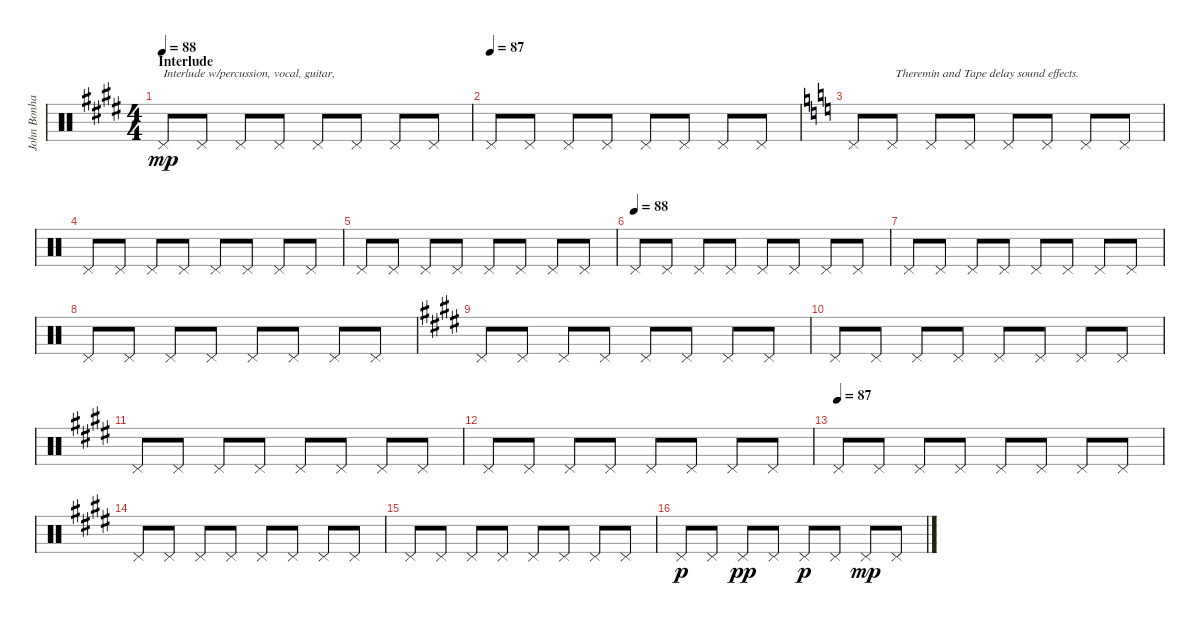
\track ("John Bonham Drums" "John Bonha") {instrument percussion}
\staff {score}
\articulation defaults
\ts (4 4)
\section ("" "Interlude")
\tempo 88
\clef neutral
\ks e "Pedal Hi-Hat (hit)".8{txt "Interlude w/percussion, vocal, guitar," dy mp} "Pedal Hi-Hat (hit)".8 "Pedal Hi-Hat (hit)".8 "Pedal Hi-Hat (hit)".8 "Pedal Hi-Hat (hit)".8 "Pedal Hi-Hat (hit)".8 "Pedal Hi-Hat (hit)".8 "Pedal Hi-Hat (hit)".8
|
\tempo (87)
"Pedal Hi-Hat (hit)".8 "Pedal Hi-Hat (hit)".8 "Pedal Hi-Hat (hit)".8 "Pedal Hi-Hat (hit)".8 "Pedal Hi-Hat (hit)".8 "Pedal Hi-Hat (hit)".8 "Pedal Hi-Hat (hit)".8 "Pedal Hi-Hat (hit)".8 |
\ks c "Pedal Hi-Hat (hit)".8 "Pedal Hi-Hat (hit)".8{txt " Theremin and Tape delay sound effects."} "Pedal Hi-Hat (hit)".8 "Pedal Hi-Hat (hit)".8 "Pedal Hi-Hat (hit)".8 "Pedal Hi-Hat (hit)".8 "Pedal Hi-Hat (hit)".8 "Pedal Hi-Hat (hit)".8
|
"Pedal Hi-Hat (hit)".8 "Pedal Hi-Hat (hit)".8 "Pedal Hi-Hat (hit)".8 "Pedal Hi-Hat (hit)".8 "Pedal Hi-Hat (hit)".8 "Pedal Hi-Hat (hit)".8 "Pedal Hi-Hat (hit)".8 "Pedal Hi-Hat (hit)".8 |
"Pedal Hi-Hat (hit)".8 "Pedal Hi-Hat (hit)".8 "Pedal Hi-Hat (hit)".8 "Pedal Hi-Hat (hit)".8 "Pedal Hi-Hat (hit)".8 "Pedal Hi-Hat (hit)".8 "Pedal Hi-Hat (hit)".8 "Pedal Hi-Hat (hit)".8 |
\tempo (88)
"Pedal Hi-Hat (hit)".8 "Pedal Hi-Hat (hit)".8 "Pedal Hi-Hat (hit)".8 "Pedal Hi-Hat (hit)".8 "Pedal Hi-Hat (hit)".8 "Pedal Hi-Hat (hit)".8 "Pedal Hi-Hat (hit)".8 "Pedal Hi-Hat (hit)".8 |
"Pedal Hi-Hat (hit)".8 "Pedal Hi-Hat (hit)".8 "Pedal Hi-Hat (hit)".8 "Pedal Hi-Hat (hit)".8 "Pedal Hi-Hat (hit)".8 "Pedal Hi-Hat (hit)".8 "Pedal Hi-Hat (hit)".8 "Pedal Hi-Hat (hit)".8 |
"Pedal Hi-Hat (hit)".8 "Pedal Hi-Hat (hit)".8 "Pedal Hi-Hat (hit)".8 "Pedal Hi-Hat (hit)".8 "Pedal Hi-Hat (hit)".8 "Pedal Hi-Hat (hit)".8 "Pedal Hi-Hat (hit)".8 "Pedal Hi-Hat (hit)".8 |
\ks e "Pedal Hi-Hat (hit)".8 "Pedal Hi-Hat (hit)".8 "Pedal Hi-Hat (hit)".8 "Pedal Hi-Hat (hit)".8 "Pedal Hi-Hat (hit)".8 "Pedal Hi-Hat (hit)".8 "Pedal Hi-Hat (hit)".8 "Pedal Hi-Hat (hit)".8
|
"Pedal Hi-Hat (hit)".8 "Pedal Hi-Hat (hit)".8 "Pedal Hi-Hat (hit)".8 "Pedal Hi-Hat (hit)".8 "Pedal Hi-Hat (hit)".8 "Pedal Hi-Hat (hit)".8 "Pedal Hi-Hat (hit)".8 "Pedal Hi-Hat (hit)".8 |
"Pedal Hi-Hat (hit)".8 "Pedal Hi-Hat (hit)".8 "Pedal Hi-Hat (hit)".8 "Pedal Hi-Hat (hit)".8 "Pedal Hi-Hat (hit)".8 "Pedal Hi-Hat (hit)".8 "Pedal Hi-Hat (hit)".8 "Pedal Hi-Hat (hit)".8 |
"Pedal Hi-Hat (hit)".8 "Pedal Hi-Hat (hit)".8 "Pedal Hi-Hat (hit)".8 "Pedal Hi-Hat (hit)".8 "Pedal Hi-Hat (hit)".8 "Pedal Hi-Hat (hit)".8 "Pedal Hi-Hat (hit)".8 "Pedal Hi-Hat (hit)".8 |
\tempo (87)
"Pedal Hi-Hat (hit)".8 "Pedal Hi-Hat (hit)".8 "Pedal Hi-Hat (hit)".8 "Pedal Hi-Hat (hit)".8 "Pedal Hi-Hat (hit)".8 "Pedal Hi-Hat (hit)".8 "Pedal Hi-Hat (hit)".8 "Pedal Hi-Hat (hit)".8 |
"Pedal Hi-Hat (hit)".8 "Pedal Hi-Hat (hit)".8 "Pedal Hi-Hat (hit)".8 "Pedal Hi-Hat (hit)".8 "Pedal Hi-Hat (hit)".8 "Pedal Hi-Hat (hit)".8 "Pedal Hi-Hat (hit)".8 "Pedal Hi-Hat (hit)".8 |
"Pedal Hi-Hat (hit)".8 "Pedal Hi-Hat (hit)".8 "Pedal Hi-Hat (hit)".8 "Pedal Hi-Hat (hit)".8 "Pedal Hi-Hat (hit)".8 "Pedal Hi-Hat (hit)".8 "Pedal Hi-Hat (hit)".8 "Pedal Hi-Hat (hit)".8 |
"Pedal Hi-Hat (hit)".8{dy p} "Pedal Hi-Hat (hit)".8 "Pedal Hi-Hat (hit)".8{dy pp} "Pedal Hi-Hat (hit)".8 "Pedal Hi-Hat (hit)".8{dy p} "Pedal Hi-Hat (hit)".8 "Pedal Hi-Hat (hit)".8{dy mp} "Pedal Hi-Hat (hit)".8
